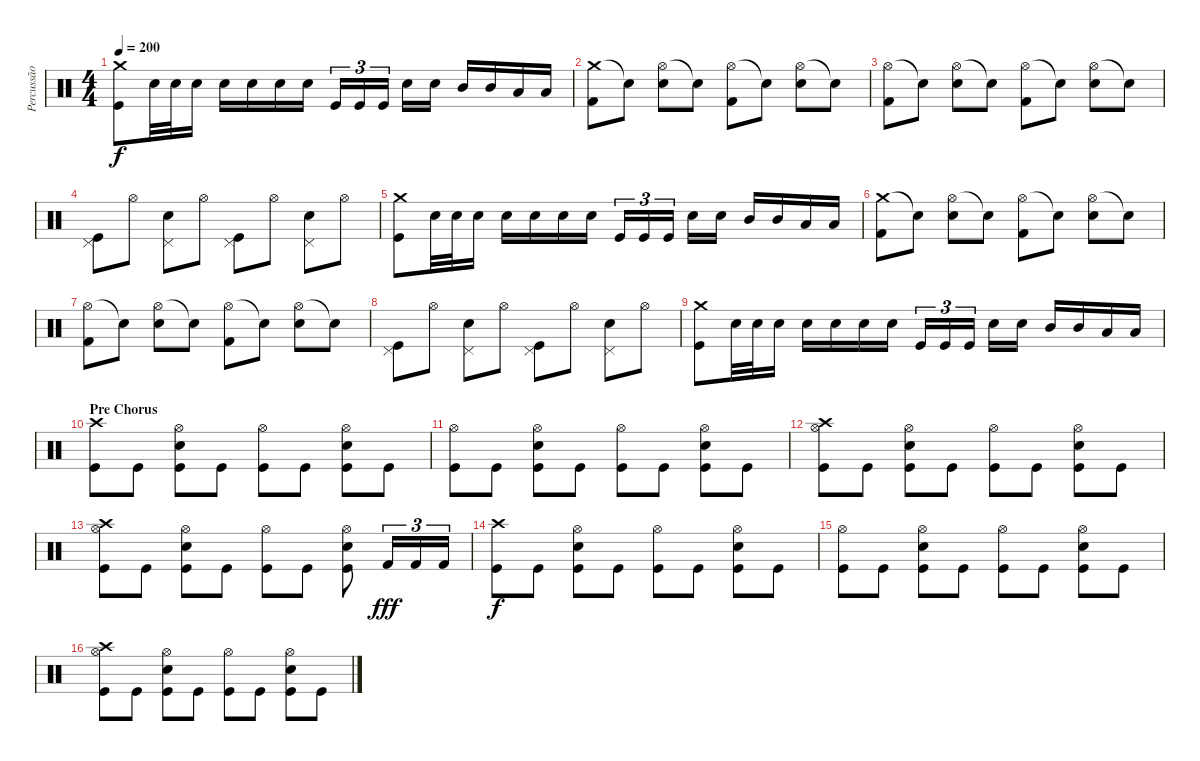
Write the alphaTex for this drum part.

\track ("Percussão" "Percussão") {instrument percussion}
\staff {score}
\articulation defaults
\ts (4 4)
\tempo 200
\clef neutral
\ks c
("Crash medium (hit)" "Kick (hit)").8{dy f} "Electric Snare (hit)".32 "Electric Snare (hit)".32 "Electric Snare (hit)".16 "Electric Snare (hit)".16 "Electric Snare (hit)".16 "Electric Snare (hit)".16 "Electric Snare (hit)".16 "Kick (hit)".16{tu (3 2)} "Kick (hit)".16{tu (3 2)} "Kick (hit)".16{tu (3 2)} "Electric Snare (hit)".16 "Electric Snare (hit)".16 "Mid Tom (hit)".16 "Mid Tom (hit)".16 "Low Tom (hit)".16 "Low Tom (hit)".16 |
("Crash medium (hit)" "Kick (hit) 2").8 "Snare (hit)"{t}.8 ("Hi-Hat (open)" "Electric Snare (hit)").8 "Snare (hit)"{t}.8 ("Hi-Hat (open)" "Kick (hit) 2").8 "Snare (hit)"{t}.8 ("Hi-Hat (open)" "Electric Snare (hit)").8 "Snare (hit)"{t}.8 |
("Hi-Hat (open)" "Kick (hit) 2").8 "Snare (hit)"{t}.8 ("Hi-Hat (open)" "Electric Snare (hit)").8 "Snare (hit)"{t}.8 ("Hi-Hat (open)" "Kick (hit) 2").8 "Snare (hit)"{t}.8 ("Hi-Hat (open)" "Electric Snare (hit)").8 "Snare (hit)"{t}.8 |
("Pedal Hi-Hat (hit)" "Kick (hit)").8 "Hi-Hat (open)".8 ("Pedal Hi-Hat (hit)" "Electric Snare (hit)").8 "Hi-Hat (open)".8 ("Pedal Hi-Hat (hit)" "Kick (hit)").8 "Hi-Hat (open)".8 ("Pedal Hi-Hat (hit)" "Electric Snare (hit)").8 "Hi-Hat (open)".8 |
("Crash medium (hit)" "Kick (hit)").8 "Electric Snare (hit)".32 "Electric Snare (hit)".32 "Electric Snare (hit)".16 "Electric Snare (hit)".16 "Electric Snare (hit)".16 "Electric Snare (hit)".16 "Electric Snare (hit)".16 "Kick (hit)".16{tu (3 2)} "Kick (hit)".16{tu (3 2)} "Kick (hit)".16{tu (3 2)} "Electric Snare (hit)".16 "Electric Snare (hit)".16 "Mid Tom (hit)".16 "Mid Tom (hit)".16 "Low Tom (hit)".16 "Low Tom (hit)".16 |
("Crash medium (hit)" "Kick (hit) 2").8 "Snare (hit)"{t}.8 ("Hi-Hat (open)" "Electric Snare (hit)").8 "Snare (hit)"{t}.8 ("Hi-Hat (open)" "Kick (hit) 2").8 "Snare (hit)"{t}.8 ("Hi-Hat (open)" "Electric Snare (hit)").8 "Snare (hit)"{t}.8 |
("Hi-Hat (open)" "Kick (hit) 2").8 "Snare (hit)"{t}.8 ("Hi-Hat (open)" "Electric Snare (hit)").8 "Snare (hit)"{t}.8 ("Hi-Hat (open)" "Kick (hit) 2").8 "Snare (hit)"{t}.8 ("Hi-Hat (open)" "Electric Snare (hit)").8 "Snare (hit)"{t}.8 |
("Pedal Hi-Hat (hit)" "Kick (hit)").8 "Hi-Hat (open)".8 ("Pedal Hi-Hat (hit)" "Electric Snare (hit)").8 "Hi-Hat (open)".8 ("Pedal Hi-Hat (hit)" "Kick (hit)").8 "Hi-Hat (open)".8 ("Pedal Hi-Hat (hit)" "Electric Snare (hit)").8 "Hi-Hat (open)".8 |
("Crash medium (hit)" "Kick (hit)").8 "Electric Snare (hit)".32 "Electric Snare (hit)".32 "Electric Snare (hit)".16 "Electric Snare (hit)".16 "Electric Snare (hit)".16 "Electric Snare (hit)".16 "Electric Snare (hit)".16 "Kick (hit)".16{tu (3 2)} "Kick (hit)".16{tu (3 2)} "Kick (hit)".16{tu (3 2)} "Electric Snare (hit)".16 "Electric Snare (hit)".16 "Mid Tom (hit)".16 "Mid Tom (hit)".16 "Low Tom (hit)".16 "Low Tom (hit)".16 |
\section ("" "Pre Chorus")
("Crash high (hit)" "Kick (hit)").8 "Kick (hit)".8 ("Hi-Hat (open)" "Electric Snare (hit)" "Kick (hit)").8 "Kick (hit)".8 ("Hi-Hat (open)" "Kick (hit)").8 "Kick (hit)".8 ("Hi-Hat (open)" "Electric Snare (hit)" "Kick (hit)").8 "Kick (hit)".8 |
("Hi-Hat (open)" "Kick (hit)").8 "Kick (hit)".8 ("Hi-Hat (open)" "Electric Snare (hit)" "Kick (hit)").8 "Kick (hit)".8 ("Hi-Hat (open)" "Kick (hit)").8 "Kick (hit)".8 ("Hi-Hat (open)" "Electric Snare (hit)" "Kick (hit)").8 "Kick (hit)".8 |
("Crash high (hit)" "Hi-Hat (open)" "Kick (hit)").8 "Kick (hit)".8 ("Hi-Hat (open)" "Electric Snare (hit)" "Kick (hit)").8 "Kick (hit)".8 ("Hi-Hat (open)" "Kick (hit)").8 "Kick (hit)".8 ("Hi-Hat (open)" "Electric Snare (hit)" "Kick (hit)").8 "Kick (hit)".8 |
("Crash high (hit)" "Hi-Hat (open)" "Kick (hit)").8 "Kick (hit)".8 ("Hi-Hat (open)" "Electric Snare (hit)" "Kick (hit)").8 "Kick (hit)".8 ("Hi-Hat (open)" "Kick (hit)").8 "Kick (hit)".8 ("Hi-Hat (open)" "Electric Snare (hit)" "Kick (hit)").8 "Kick (hit) 2".16{tu (3 2) dy fff} "Kick (hit) 2".16{tu (3 2)} "Kick (hit) 2".16{tu (3 2)} |
("Crash high (hit)" "Kick (hit)").8{dy f} "Kick (hit)".8 ("Hi-Hat (open)" "Electric Snare (hit)" "Kick (hit)").8 "Kick (hit)".8 ("Hi-Hat (open)" "Kick (hit)").8 "Kick (hit)".8 ("Hi-Hat (open)" "Electric Snare (hit)" "Kick (hit)").8 "Kick (hit)".8 |
("Hi-Hat (open)" "Kick (hit)").8 "Kick (hit)".8 ("Hi-Hat (open)" "Electric Snare (hit)" "Kick (hit)").8 "Kick (hit)".8 ("Hi-Hat (open)" "Kick (hit)").8 "Kick (hit)".8 ("Hi-Hat (open)" "Electric Snare (hit)" "Kick (hit)").8 "Kick (hit)".8 |
("Crash high (hit)" "Hi-Hat (open)" "Kick (hit)").8 "Kick (hit)".8 ("Hi-Hat (open)" "Electric Snare (hit)" "Kick (hit)").8 "Kick (hit)".8 ("Hi-Hat (open)" "Kick (hit)").8 "Kick (hit)".8 ("Hi-Hat (open)" "Electric Snare (hit)" "Kick (hit)").8 "Kick (hit)".8
